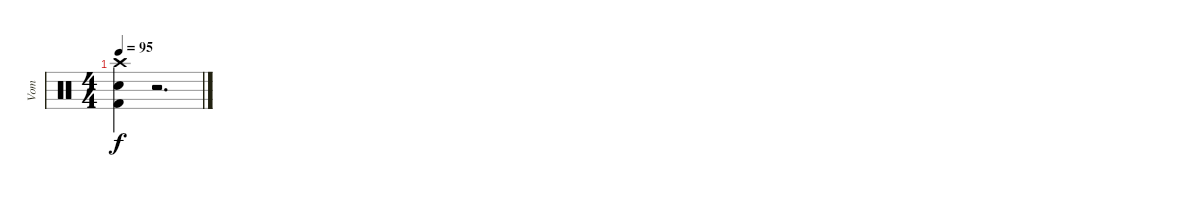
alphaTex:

\track ("Vom" "Vom") {instrument percussion}
\staff {score}
\articulation defaults
\ts (4 4)
\tempo 95
\clef neutral
\ks c
("Kick (hit) 2" "Snare (hit) 2" "Crash high (hit)").4{dy f} r.2{d}
